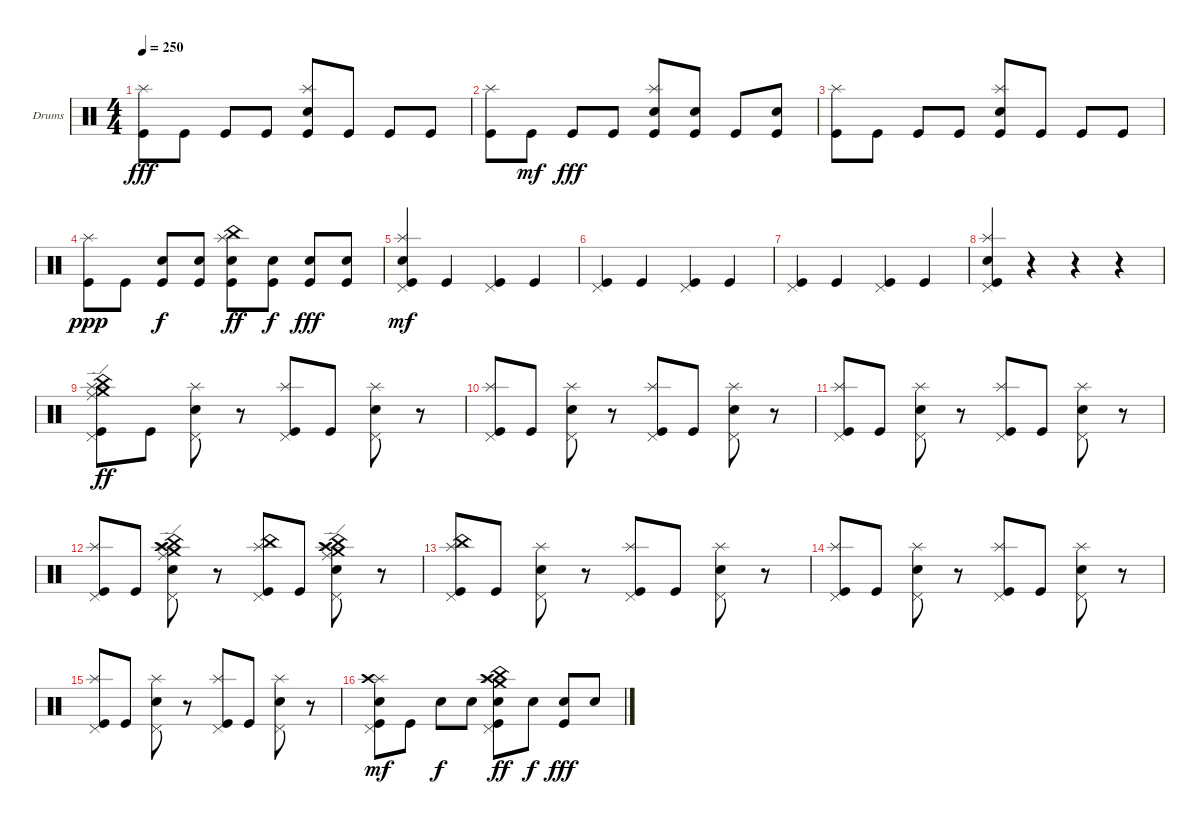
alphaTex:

\defaultSystemsLayout 4
\bracketExtendMode groupsimilarinstruments
\firstSystemTrackNameOrientation horizontal
\otherSystemsTrackNameOrientation horizontal
\track ("Драмки" "Drums") {instrument percussion}
\staff {score}
\articulation defaults
\ts (4 4)
\tempo 250
\clef neutral
\ks c
("Kick (hit)" "Splash (hit)").8{dy fff} "Kick (hit)".8 "Kick (hit)".8 "Kick (hit)".8 ("Kick (hit)" "Splash (hit)" "Snare (hit) 2").8 "Kick (hit)".8 "Kick (hit)".8 "Kick (hit)".8 |
("Kick (hit)" "Splash (hit)").8 "Kick (hit)".8{dy mf} "Kick (hit)".8{dy fff} "Kick (hit)".8 ("Kick (hit)" "Splash (hit)" "Snare (hit) 2").8 ("Snare (hit) 2" "Kick (hit)").8 "Kick (hit)".8 ("Snare (hit) 2" "Kick (hit)").8 |
("Kick (hit)" "Splash (hit)").8 "Kick (hit)".8 "Kick (hit)".8 "Kick (hit)".8 ("Kick (hit)" "Snare (hit) 2" "Splash (hit)").8 "Kick (hit)".8 "Kick (hit)".8 "Kick (hit)".8 |
("Splash (hit)" "Kick (hit)").8{dy ppp} "Kick (hit)".8 ("Kick (hit)" "Snare (hit) 2").8{dy f} ("Kick (hit)" "Snare (hit) 2").8 ("Kick (hit)" "Splash (hit)" "China (hit)" "Snare (hit) 2").8{dy ff} ("Kick (hit)" "Snare (hit) 2").8{dy f} ("Kick (hit)" "Snare (hit) 2").8{dy fff} ("Kick (hit)" "Snare (hit) 2").8 |
("Kick (hit)" "Snare (hit) 2" "Pedal Hi-Hat (hit)" "Splash (hit)").4{dy mf} "Kick (hit)".4 ("Kick (hit)" "Pedal Hi-Hat (hit)").4 "Kick (hit)".4 |
("Kick (hit)" "Pedal Hi-Hat (hit)").4 "Kick (hit)".4 ("Kick (hit)" "Pedal Hi-Hat (hit)").4 "Kick (hit)".4 |
("Kick (hit)" "Pedal Hi-Hat (hit)").4 "Kick (hit)".4 ("Kick (hit)" "Pedal Hi-Hat (hit)").4 "Kick (hit)".4 |
("Kick (hit)" "Pedal Hi-Hat (hit)" "Splash (hit)" "Snare (hit) 2").4 r.4 r.4 r.4 |
("Splash (hit)" "Kick (hit)" "Crash medium (hit)" "China (hit)" "Ride (edge)" "Pedal Hi-Hat (hit)").8{dy ff} "Kick (hit)".8 ("Snare (hit) 2" "Splash (hit)" "Pedal Hi-Hat (hit)").8 r.8 ("Splash (hit)" "Kick (hit)" "Pedal Hi-Hat (hit)").8 "Kick (hit)".8 ("Snare (hit) 2" "Splash (hit)" "Pedal Hi-Hat (hit)").8 r.8 |
("Kick (hit)" "Splash (hit)" "Pedal Hi-Hat (hit)").8 "Kick (hit)".8 ("Snare (hit) 2" "Splash (hit)" "Pedal Hi-Hat (hit)").8 r.8 ("Kick (hit)" "Splash (hit)" "Pedal Hi-Hat (hit)").8 "Kick (hit)".8 ("Snare (hit) 2" "Splash (hit)" "Pedal Hi-Hat (hit)").8 r.8 |
("Kick (hit)" "Splash (hit)" "Pedal Hi-Hat (hit)").8 "Kick (hit)".8 ("Snare (hit) 2" "Splash (hit)" "Pedal Hi-Hat (hit)").8 r.8 ("Kick (hit)" "Splash (hit)" "Pedal Hi-Hat (hit)").8 "Kick (hit)".8 ("Snare (hit) 2" "Splash (hit)" "Pedal Hi-Hat (hit)").8 r.8 |
("Kick (hit)" "Splash (hit)" "Pedal Hi-Hat (hit)").8 "Kick (hit)".8 ("Snare (hit) 2" "Splash (hit)" "Pedal Hi-Hat (hit)" "China (hit)" "Ride (edge)" "Crash high (hit)" "Crash medium (hit)").8 r.8 ("Splash (hit)" "Pedal Hi-Hat (hit)" "China (hit)" "Kick (hit)").8 "Kick (hit)".8 ("Snare (hit) 2" "Splash (hit)" "Pedal Hi-Hat (hit)" "China (hit)" "Crash high (hit)" "Ride (edge)" "Crash medium (hit)").8 r.8 |
("Splash (hit)" "Kick (hit)" "China (hit)" "Pedal Hi-Hat (hit)").8 "Kick (hit)".8 ("Snare (hit) 2" "Splash (hit)" "Pedal Hi-Hat (hit)").8 r.8 ("Kick (hit)" "Splash (hit)" "Pedal Hi-Hat (hit)").8 "Kick (hit)".8 ("Snare (hit) 2" "Splash (hit)" "Pedal Hi-Hat (hit)").8 r.8 |
("Kick (hit)" "Splash (hit)" "Pedal Hi-Hat (hit)").8 "Kick (hit)".8 ("Snare (hit) 2" "Splash (hit)" "Pedal Hi-Hat (hit)").8 r.8 ("Kick (hit)" "Splash (hit)" "Pedal Hi-Hat (hit)").8 "Kick (hit)".8 ("Snare (hit) 2" "Splash (hit)" "Pedal Hi-Hat (hit)").8 r.8 |
("Kick (hit)" "Splash (hit)" "Pedal Hi-Hat (hit)").8 "Kick (hit)".8 ("Snare (hit) 2" "Splash (hit)" "Pedal Hi-Hat (hit)").8 r.8 ("Kick (hit)" "Splash (hit)" "Pedal Hi-Hat (hit)").8 "Kick (hit)".8 ("Snare (hit) 2" "Splash (hit)" "Pedal Hi-Hat (hit)").8 r.8 |
("Snare (hit) 2" "Splash (hit)" "Pedal Hi-Hat (hit)" "Crash high (hit)" "Kick (hit)").8{dy mf} "Kick (hit)".8 "Snare (hit) 2".8{dy f} "Snare (hit) 2".8 ("Snare (hit) 2" "Splash (hit)" "Pedal Hi-Hat (hit)" "Crash medium (hit)" "Crash high (hit)" "China (hit)" "Kick (hit)").8{dy ff} "Snare (hit) 2".8{dy f} ("Snare (hit) 2" "Kick (hit)").8{dy fff} "Snare (hit) 2".8
